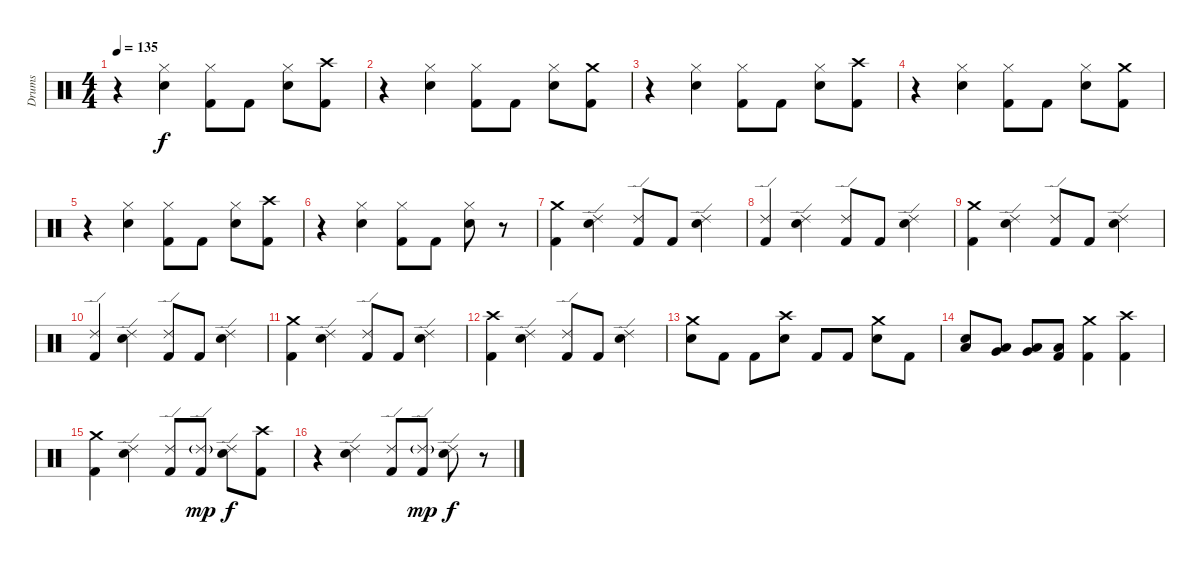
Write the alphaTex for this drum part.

\track ("Drums" "Drums") {instrument percussion}
\staff {score}
\articulation defaults
\ts (4 4)
\tempo 135
\clef neutral
\ks c
r.4{dy f} ("Hi-Hat (closed)" "Electric Snare (hit)").4 ("Hi-Hat (closed)" "Kick (hit) 2").8 "Kick (hit) 2".8 ("Hi-Hat (closed)" "Electric Snare (hit)").8 ("Crash high (hit)" "Kick (hit) 2").8 |
r.4 ("Hi-Hat (closed)" "Electric Snare (hit)").4 ("Hi-Hat (closed)" "Kick (hit) 2").8 "Kick (hit) 2".8 ("Hi-Hat (closed)" "Electric Snare (hit)").8 ("Crash medium (hit)" "Kick (hit) 2").8 |
r.4 ("Hi-Hat (closed)" "Electric Snare (hit)").4 ("Hi-Hat (closed)" "Kick (hit) 2").8 "Kick (hit) 2".8 ("Hi-Hat (closed)" "Electric Snare (hit)").8 ("Crash high (hit)" "Kick (hit) 2").8 |
r.4 ("Hi-Hat (closed)" "Electric Snare (hit)").4 ("Hi-Hat (closed)" "Kick (hit) 2").8 "Kick (hit) 2".8 ("Hi-Hat (closed)" "Electric Snare (hit)").8 ("Crash medium (hit)" "Kick (hit) 2").8 |
r.4 ("Hi-Hat (closed)" "Electric Snare (hit)").4 ("Hi-Hat (closed)" "Kick (hit) 2").8 "Kick (hit) 2".8 ("Hi-Hat (closed)" "Electric Snare (hit)").8 ("Crash high (hit)" "Kick (hit) 2").8 |
r.4 ("Hi-Hat (closed)" "Electric Snare (hit)").4 ("Hi-Hat (closed)" "Kick (hit) 2").8 "Kick (hit) 2".8 ("Hi-Hat (closed)" "Electric Snare (hit)").8 r.8 |
("Crash medium (hit)" "Kick (hit) 2").4 ("Electric Snare (hit)" "Ride (edge) 2").4 ("Ride (edge) 2" "Kick (hit) 2").8 "Kick (hit) 2".8 ("Electric Snare (hit)" "Ride (edge) 2").4 |
("Ride (edge) 2" "Kick (hit) 2").4 ("Ride (edge) 2" "Electric Snare (hit)").4 ("Kick (hit) 2" "Ride (edge) 2").8 "Kick (hit) 2".8 ("Ride (edge) 2" "Electric Snare (hit)").4 |
("Crash medium (hit)" "Kick (hit) 2").4 ("Electric Snare (hit)" "Ride (edge) 2").4 ("Ride (edge) 2" "Kick (hit) 2").8 "Kick (hit) 2".8 ("Electric Snare (hit)" "Ride (edge) 2").4 |
("Ride (edge) 2" "Kick (hit) 2").4 ("Ride (edge) 2" "Electric Snare (hit)").4 ("Kick (hit) 2" "Ride (edge) 2").8 "Kick (hit) 2".8 ("Ride (edge) 2" "Electric Snare (hit)").4 |
("Crash medium (hit)" "Kick (hit) 2").4 ("Electric Snare (hit)" "Ride (edge) 2").4 ("Ride (edge) 2" "Kick (hit) 2").8 "Kick (hit) 2".8 ("Electric Snare (hit)" "Ride (edge) 2").4 |
("Crash high (hit)" "Kick (hit) 2").4 ("Electric Snare (hit)" "Ride (edge) 2").4 ("Ride (edge) 2" "Kick (hit) 2").8 "Kick (hit) 2".8 ("Electric Snare (hit)" "Ride (edge) 2").4 |
("Crash medium (hit)" "Electric Snare (hit)").8 "Kick (hit) 2".8 "Kick (hit) 2".8 ("Electric Snare (hit)" "Crash high (hit)").8 "Kick (hit) 2".8 "Kick (hit) 2".8 ("Crash medium (hit)" "Electric Snare (hit)").8 "Kick (hit) 2".8 |
("Low Tom (hit)" "Electric Snare (hit)").8 ("Very Low Tom (hit)" "Low Tom (hit)").8 ("Low Floor Tom (hit)" "Very Low Tom (hit)").8 ("Kick (hit) 2" "Low Floor Tom (hit)").8 ("Crash medium (hit)" "Kick (hit) 2").4 ("Kick (hit) 2" "Crash high (hit)").4 |
("Kick (hit) 2" "Crash medium (hit)").4 ("Ride (edge) 2" "Electric Snare (hit)").4 ("Ride (edge) 2" "Kick (hit) 2").8 ("Ride (edge) 2"{g} "Kick (hit) 2").8{dy mp} ("Ride (edge) 2" "Electric Snare (hit)").8{dy f} ("Crash high (hit)" "Kick (hit) 2").8 |
r.4 ("Ride (edge) 2" "Electric Snare (hit)").4 ("Ride (edge) 2" "Kick (hit) 2").8 ("Ride (edge) 2"{g} "Kick (hit) 2").8{dy mp} ("Ride (edge) 2" "Electric Snare (hit)").8{dy f} r.8
